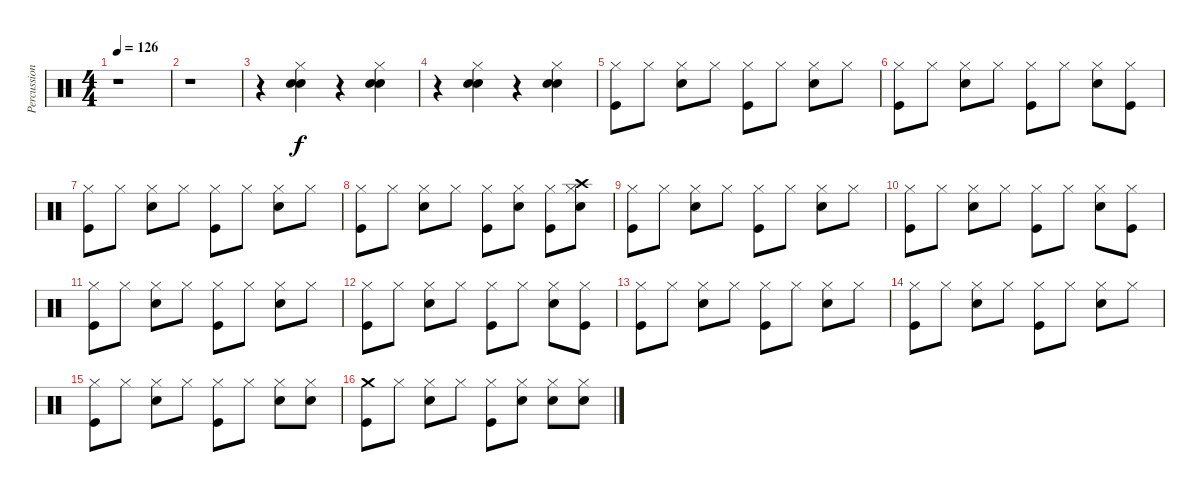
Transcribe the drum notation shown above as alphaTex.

\track ("Percussion" "Percussion") {instrument percussion}
\staff {score}
\articulation defaults
\ts (4 4)
\tempo 126
\clef neutral
\ks c
r.1{dy f} |
r.1 |
r.4 ("Snare (hit) 2" "Electric Snare (hit)" "Hi-Hat (closed)").4 r.4 ("Snare (hit) 2" "Electric Snare (hit)" "Hi-Hat (closed)").4 |
r.4 ("Snare (hit) 2" "Electric Snare (hit)" "Hi-Hat (closed)").4 r.4 ("Snare (hit) 2" "Electric Snare (hit)" "Hi-Hat (closed)").4 |
("Hi-Hat (closed)" "Kick (hit)").8 "Hi-Hat (closed)".8 ("Hi-Hat (closed)" "Electric Snare (hit)").8 "Hi-Hat (closed)".8 ("Hi-Hat (closed)" "Kick (hit)").8 "Hi-Hat (closed)".8 ("Hi-Hat (closed)" "Electric Snare (hit)").8 "Hi-Hat (closed)".8 |
("Hi-Hat (closed)" "Kick (hit)").8 "Hi-Hat (closed)".8 ("Hi-Hat (closed)" "Electric Snare (hit)").8 "Hi-Hat (closed)".8 ("Hi-Hat (closed)" "Kick (hit)").8 "Hi-Hat (closed)".8 ("Hi-Hat (closed)" "Electric Snare (hit)").8 ("Hi-Hat (closed)" "Kick (hit)").8 |
("Hi-Hat (closed)" "Kick (hit)").8 "Hi-Hat (closed)".8 ("Hi-Hat (closed)" "Electric Snare (hit)").8 "Hi-Hat (closed)".8 ("Hi-Hat (closed)" "Kick (hit)").8 "Hi-Hat (closed)".8 ("Hi-Hat (closed)" "Electric Snare (hit)").8 "Hi-Hat (closed)".8 |
("Hi-Hat (closed)" "Kick (hit)").8 "Hi-Hat (closed)".8 ("Hi-Hat (closed)" "Electric Snare (hit)").8 "Hi-Hat (closed)".8 ("Hi-Hat (closed)" "Kick (hit)").8 ("Hi-Hat (closed)" "Electric Snare (hit)").8 ("Hi-Hat (closed)" "Kick (hit)").8 ("Hi-Hat (closed)" "Crash high (hit)" "Electric Snare (hit)").8 |
("Hi-Hat (closed)" "Kick (hit)").8 "Hi-Hat (closed)".8 ("Hi-Hat (closed)" "Electric Snare (hit)").8 "Hi-Hat (closed)".8 ("Hi-Hat (closed)" "Kick (hit)").8 "Hi-Hat (closed)".8 ("Hi-Hat (closed)" "Electric Snare (hit)").8 "Hi-Hat (closed)".8 |
("Hi-Hat (closed)" "Kick (hit)").8 "Hi-Hat (closed)".8 ("Hi-Hat (closed)" "Electric Snare (hit)").8 "Hi-Hat (closed)".8 ("Hi-Hat (closed)" "Kick (hit)").8 "Hi-Hat (closed)".8 ("Hi-Hat (closed)" "Electric Snare (hit)").8 ("Hi-Hat (closed)" "Kick (hit)").8 |
("Hi-Hat (closed)" "Kick (hit)").8 "Hi-Hat (closed)".8 ("Hi-Hat (closed)" "Electric Snare (hit)").8 "Hi-Hat (closed)".8 ("Hi-Hat (closed)" "Kick (hit)").8 "Hi-Hat (closed)".8 ("Hi-Hat (closed)" "Electric Snare (hit)").8 "Hi-Hat (closed)".8 |
("Hi-Hat (closed)" "Kick (hit)").8 "Hi-Hat (closed)".8 ("Hi-Hat (closed)" "Electric Snare (hit)").8 "Hi-Hat (closed)".8 ("Hi-Hat (closed)" "Kick (hit)").8 "Hi-Hat (closed)".8 ("Hi-Hat (closed)" "Electric Snare (hit)").8 ("Hi-Hat (closed)" "Kick (hit)").8 |
("Hi-Hat (closed)" "Kick (hit)").8 "Hi-Hat (closed)".8 ("Hi-Hat (closed)" "Electric Snare (hit)").8 "Hi-Hat (closed)".8 ("Hi-Hat (closed)" "Kick (hit)").8 "Hi-Hat (closed)".8 ("Hi-Hat (closed)" "Electric Snare (hit)").8 "Hi-Hat (closed)".8 |
("Hi-Hat (closed)" "Kick (hit)").8 "Hi-Hat (closed)".8 ("Hi-Hat (closed)" "Electric Snare (hit)").8 "Hi-Hat (closed)".8 ("Hi-Hat (closed)" "Kick (hit)").8 "Hi-Hat (closed)".8 ("Hi-Hat (closed)" "Electric Snare (hit)").8 "Hi-Hat (closed)".8 |
("Hi-Hat (closed)" "Kick (hit)").8 "Hi-Hat (closed)".8 ("Hi-Hat (closed)" "Electric Snare (hit)").8 "Hi-Hat (closed)".8 ("Hi-Hat (closed)" "Kick (hit)").8 "Hi-Hat (closed)".8 ("Hi-Hat (closed)" "Electric Snare (hit)").8 ("Hi-Hat (closed)" "Electric Snare (hit)").8 |
("Crash medium (hit)" "Kick (hit)").8 "Hi-Hat (closed)".8 ("Hi-Hat (closed)" "Electric Snare (hit)").8 "Hi-Hat (closed)".8 ("Hi-Hat (closed)" "Kick (hit)").8 ("Hi-Hat (closed)" "Electric Snare (hit)").8 ("Hi-Hat (closed)" "Electric Snare (hit)").8 ("Hi-Hat (closed)" "Electric Snare (hit)").8
